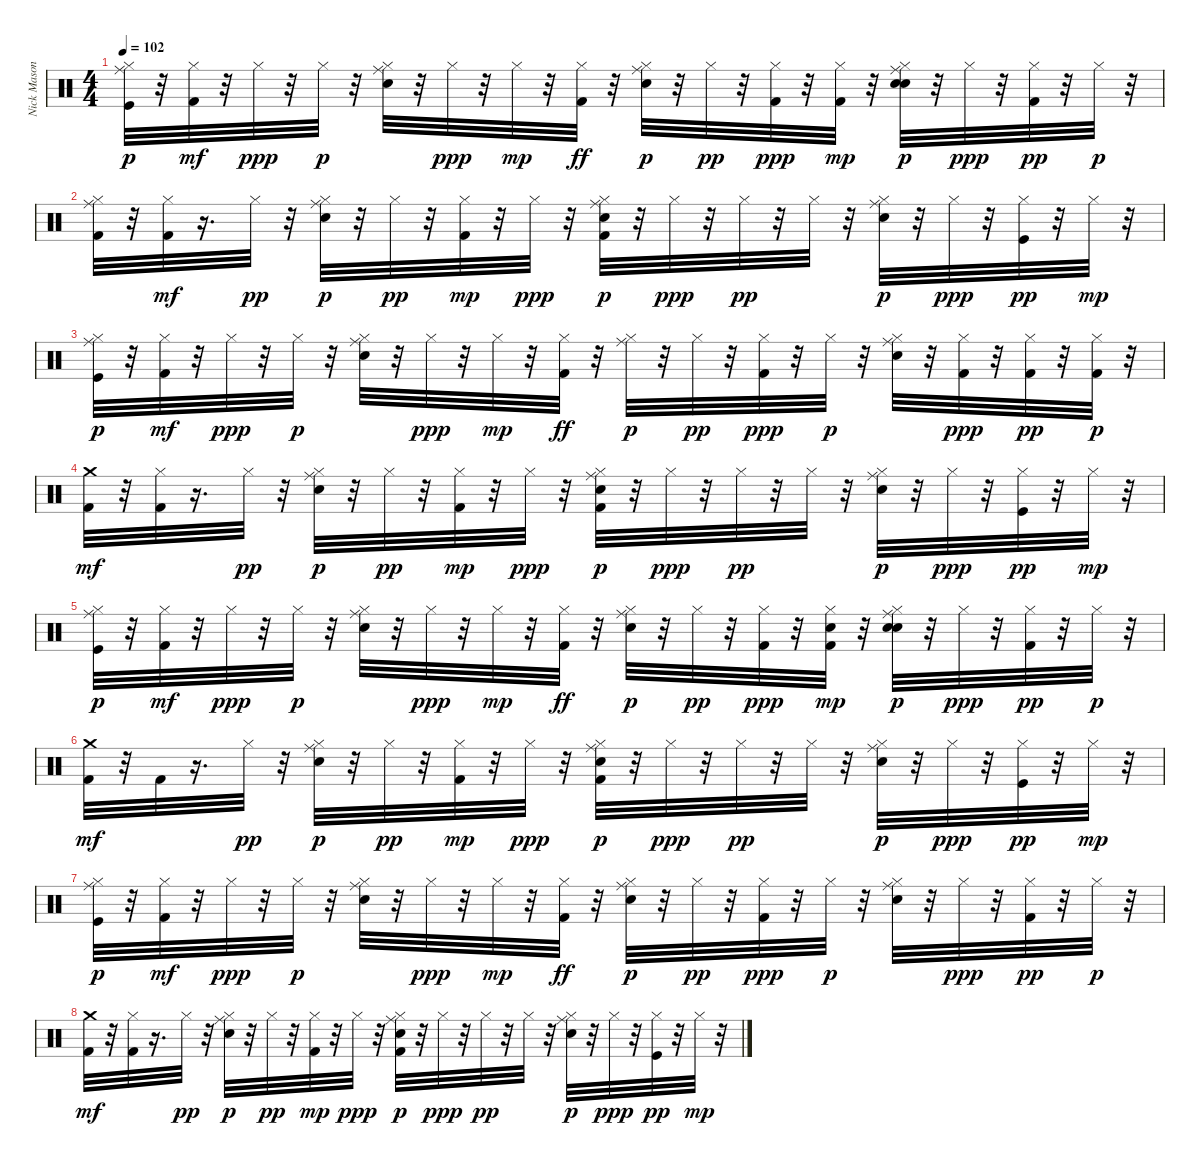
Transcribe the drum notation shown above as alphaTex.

\track ("Nick Mason / Gary Wallis" "Nick Mason") {instrument percussion}
\staff {score}
\articulation defaults
\ts (4 4)
\tempo 102
\clef neutral
\ks c
("Kick (hit)" "Hi-Hat (closed)" "Ride (middle)").32{dy p} r.32 ("Hi-Hat (closed)" "Kick (hit) 2").32{dy mf} r.32 "Hi-Hat (closed)".32{dy ppp} r.32 "Hi-Hat (closed)".32{dy p} r.32 ("Snare (hit) 2" "Hi-Hat (closed)" "Ride (middle)").32 r.32 "Hi-Hat (closed)".32{dy ppp} r.32 "Hi-Hat (closed)".32{dy mp} r.32 ("Hi-Hat (closed)" "Kick (hit) 2").32{dy ff} r.32 ("Electric Snare (hit)" "Hi-Hat (closed)" "Ride (middle)").32{dy p} r.32 "Hi-Hat (closed)".32{dy pp} r.32 ("Hi-Hat (closed)" "Kick (hit) 2").32{dy ppp} r.32 ("Hi-Hat (closed)" "Kick (hit) 2").32{dy mp} r.32 ("Snare (hit) 2" "Electric Snare (hit)" "Hi-Hat (closed)" "Ride (middle)").32{dy p} r.32 "Hi-Hat (closed)".32{dy ppp} r.32 ("Kick (hit) 2" "Hi-Hat (closed)").32{dy pp} r.32 "Hi-Hat (closed)".32{dy p} r.32 |
("Kick (hit) 2" "Hi-Hat (closed)" "Ride (middle)").32 r.32 ("Hi-Hat (closed)" "Kick (hit) 2").32{dy mf} r.16{d} "Hi-Hat (closed)".32{dy pp} r.32 ("Snare (hit) 2" "Hi-Hat (closed)" "Ride (middle)").32{dy p} r.32 "Hi-Hat (closed)".32{dy pp} r.32 ("Kick (hit) 2" "Hi-Hat (closed)").32{dy mp} r.32 "Hi-Hat (closed)".32{dy ppp} r.32 ("Kick (hit) 2" "Electric Snare (hit)" "Hi-Hat (closed)" "Ride (middle)").32{dy p} r.32 "Hi-Hat (closed)".32{dy ppp} r.32 "Hi-Hat (closed)".32{dy pp} r.32 "Hi-Hat (closed)".32 r.32 ("Snare (hit) 2" "Hi-Hat (closed)" "Ride (middle)").32{dy p} r.32 "Hi-Hat (closed)".32{dy ppp} r.32 ("Kick (hit)" "Hi-Hat (closed)").32{dy pp} r.32 "Hi-Hat (closed)".32{dy mp} r.32 |
("Kick (hit)" "Hi-Hat (closed)" "Ride (middle)").32{dy p} r.32 ("Hi-Hat (closed)" "Kick (hit) 2").32{dy mf} r.32 "Hi-Hat (closed)".32{dy ppp} r.32 "Hi-Hat (closed)".32{dy p} r.32 ("Snare (hit) 2" "Hi-Hat (closed)" "Ride (middle)").32 r.32 "Hi-Hat (closed)".32{dy ppp} r.32 "Hi-Hat (closed)".32{dy mp} r.32 ("Hi-Hat (closed)" "Kick (hit) 2").32{dy ff} r.32 ("Hi-Hat (closed)" "Ride (middle)").32{dy p} r.32 "Hi-Hat (closed)".32{dy pp} r.32 ("Hi-Hat (closed)" "Kick (hit) 2").32{dy ppp} r.32 "Hi-Hat (closed)".32{dy p} r.32 ("Snare (hit) 2" "Hi-Hat (closed)" "Ride (middle)").32 r.32 ("Kick (hit) 2" "Hi-Hat (closed)").32{dy ppp} r.32 ("Kick (hit) 2" "Hi-Hat (closed)").32{dy pp} r.32 ("Kick (hit) 2" "Hi-Hat (closed)").32{dy p} r.32 |
("Kick (hit) 2" "Crash medium (hit)").32{dy mf} r.32 ("Hi-Hat (closed)" "Kick (hit) 2").32 r.16{d} "Hi-Hat (closed)".32{dy pp} r.32 ("Snare (hit) 2" "Hi-Hat (closed)" "Ride (middle)").32{dy p} r.32 "Hi-Hat (closed)".32{dy pp} r.32 ("Kick (hit) 2" "Hi-Hat (closed)").32{dy mp} r.32 "Hi-Hat (closed)".32{dy ppp} r.32 ("Kick (hit) 2" "Electric Snare (hit)" "Hi-Hat (closed)" "Ride (middle)").32{dy p} r.32 "Hi-Hat (closed)".32{dy ppp} r.32 "Hi-Hat (closed)".32{dy pp} r.32 "Hi-Hat (closed)".32 r.32 ("Snare (hit) 2" "Hi-Hat (closed)" "Ride (middle)").32{dy p} r.32 "Hi-Hat (closed)".32{dy ppp} r.32 ("Kick (hit)" "Hi-Hat (closed)").32{dy pp} r.32 "Hi-Hat (closed)".32{dy mp} r.32 |
("Kick (hit)" "Hi-Hat (closed)" "Ride (middle)").32{dy p} r.32 ("Hi-Hat (closed)" "Kick (hit) 2").32{dy mf} r.32 "Hi-Hat (closed)".32{dy ppp} r.32 "Hi-Hat (closed)".32{dy p} r.32 ("Snare (hit) 2" "Hi-Hat (closed)" "Ride (middle)").32 r.32 "Hi-Hat (closed)".32{dy ppp} r.32 "Hi-Hat (closed)".32{dy mp} r.32 ("Hi-Hat (closed)" "Kick (hit) 2").32{dy ff} r.32 ("Electric Snare (hit)" "Hi-Hat (closed)" "Ride (middle)").32{dy p} r.32 "Hi-Hat (closed)".32{dy pp} r.32 ("Hi-Hat (closed)" "Kick (hit) 2").32{dy ppp} r.32 ("Electric Snare (hit)" "Hi-Hat (closed)" "Kick (hit) 2").32{dy mp} r.32 ("Snare (hit) 2" "Electric Snare (hit)" "Hi-Hat (closed)" "Ride (middle)").32{dy p} r.32 "Hi-Hat (closed)".32{dy ppp} r.32 ("Kick (hit) 2" "Hi-Hat (closed)").32{dy pp} r.32 "Hi-Hat (closed)".32{dy p} r.32 |
("Kick (hit) 2" "Crash medium (hit)").32{dy mf} r.32 "Kick (hit) 2".32 r.16{d} "Hi-Hat (closed)".32{dy pp} r.32 ("Snare (hit) 2" "Hi-Hat (closed)" "Ride (middle)").32{dy p} r.32 "Hi-Hat (closed)".32{dy pp} r.32 ("Kick (hit) 2" "Hi-Hat (closed)").32{dy mp} r.32 "Hi-Hat (closed)".32{dy ppp} r.32 ("Kick (hit) 2" "Electric Snare (hit)" "Hi-Hat (closed)" "Ride (middle)").32{dy p} r.32 "Hi-Hat (closed)".32{dy ppp} r.32 "Hi-Hat (closed)".32{dy pp} r.32 "Hi-Hat (closed)".32 r.32 ("Snare (hit) 2" "Hi-Hat (closed)" "Ride (middle)").32{dy p} r.32 "Hi-Hat (closed)".32{dy ppp} r.32 ("Kick (hit)" "Hi-Hat (closed)").32{dy pp} r.32 "Hi-Hat (closed)".32{dy mp} r.32 |
("Kick (hit)" "Hi-Hat (closed)" "Ride (middle)").32{dy p} r.32 ("Hi-Hat (closed)" "Kick (hit) 2").32{dy mf} r.32 "Hi-Hat (closed)".32{dy ppp} r.32 "Hi-Hat (closed)".32{dy p} r.32 ("Snare (hit) 2" "Hi-Hat (closed)" "Ride (middle)").32 r.32 "Hi-Hat (closed)".32{dy ppp} r.32 "Hi-Hat (closed)".32{dy mp} r.32 ("Hi-Hat (closed)" "Kick (hit) 2").32{dy ff} r.32 ("Electric Snare (hit)" "Hi-Hat (closed)" "Ride (middle)").32{dy p} r.32 "Hi-Hat (closed)".32{dy pp} r.32 ("Hi-Hat (closed)" "Kick (hit) 2").32{dy ppp} r.32 "Hi-Hat (closed)".32{dy p} r.32 ("Snare (hit) 2" "Hi-Hat (closed)" "Ride (middle)").32 r.32 "Hi-Hat (closed)".32{dy ppp} r.32 ("Kick (hit) 2" "Hi-Hat (closed)").32{dy pp} r.32 "Hi-Hat (closed)".32{dy p} r.32 |
("Kick (hit) 2" "Crash medium (hit)").32{dy mf} r.32 ("Hi-Hat (closed)" "Kick (hit) 2").32 r.16{d} "Hi-Hat (closed)".32{dy pp} r.32 ("Snare (hit) 2" "Hi-Hat (closed)" "Ride (middle)").32{dy p} r.32 "Hi-Hat (closed)".32{dy pp} r.32 ("Kick (hit) 2" "Hi-Hat (closed)").32{dy mp} r.32 "Hi-Hat (closed)".32{dy ppp} r.32 ("Kick (hit) 2" "Electric Snare (hit)" "Hi-Hat (closed)" "Ride (middle)").32{dy p} r.32 "Hi-Hat (closed)".32{dy ppp} r.32 "Hi-Hat (closed)".32{dy pp} r.32 "Hi-Hat (closed)".32 r.32 ("Snare (hit) 2" "Hi-Hat (closed)" "Ride (middle)").32{dy p} r.32 "Hi-Hat (closed)".32{dy ppp} r.32 ("Kick (hit)" "Hi-Hat (closed)").32{dy pp} r.32 "Hi-Hat (closed)".32{dy mp} r.32
